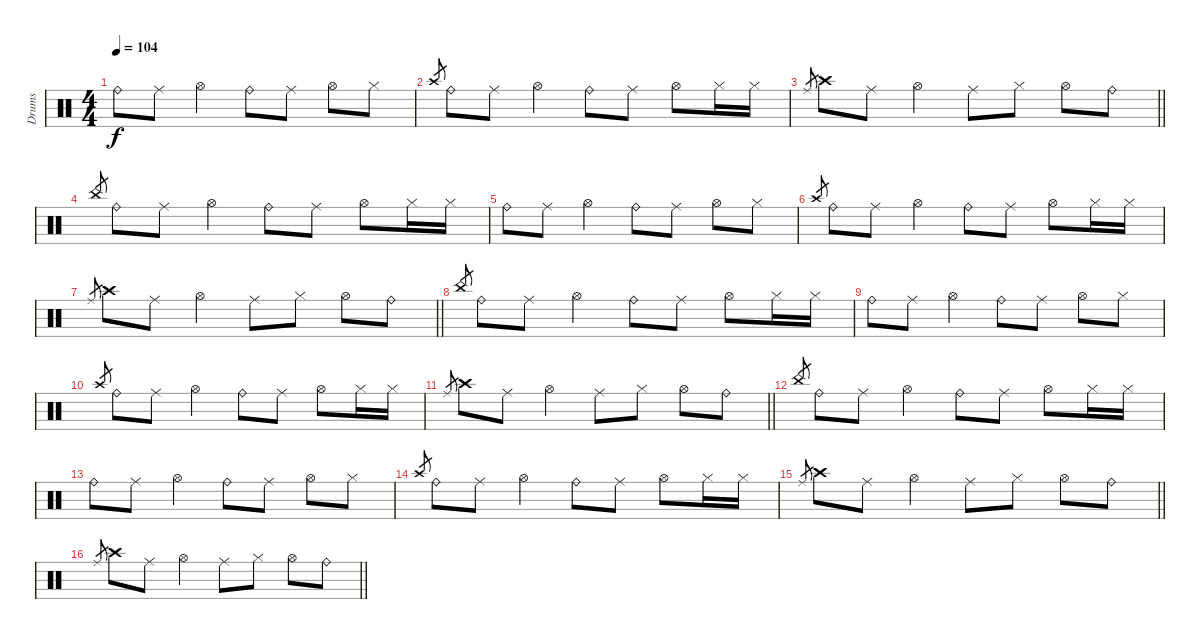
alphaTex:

\track ("Drums" "Drums") {instrument percussion}
\staff {score}
\articulation defaults
\ts (4 4)
\tempo 104
\clef neutral
\ks c "Ride (bell)".8{dy f} "Ride (middle)".8 "Hi-Hat (open)".4 "Ride (bell)".8 "Ride (middle)".8 "Hi-Hat (open)".8 "Hi-Hat (closed)".8
|
"Crash high (hit)".8{gr} "Ride (bell)".8 "Ride (middle)".8 "Hi-Hat (open)".4 "Ride (bell)".8 "Ride (middle)".8 "Hi-Hat (open)".8 "Hi-Hat (closed)".16 "Hi-Hat (closed)".16 |
\barLineRight lightlight "Ride (middle)".8{gr} "Crash high (hit)".8 "Ride (middle)".8 "Hi-Hat (open)".4 "Ride (middle)".8 "Hi-Hat (closed)".8 "Hi-Hat (open)".8 "Ride (bell)".8
|
"China (hit)".8{gr} "Ride (bell)".8 "Ride (middle)".8 "Hi-Hat (open)".4 "Ride (bell)".8 "Ride (middle)".8 "Hi-Hat (open)".8 "Hi-Hat (closed)".16 "Hi-Hat (closed)".16 |
"Ride (bell)".8 "Ride (middle)".8 "Hi-Hat (open)".4 "Ride (bell)".8 "Ride (middle)".8 "Hi-Hat (open)".8 "Hi-Hat (closed)".8 |
"Crash high (hit)".8{gr} "Ride (bell)".8 "Ride (middle)".8 "Hi-Hat (open)".4 "Ride (bell)".8 "Ride (middle)".8 "Hi-Hat (open)".8 "Hi-Hat (closed)".16 "Hi-Hat (closed)".16 |
\barLineRight lightlight "Ride (middle)".8{gr} "Crash high (hit)".8 "Ride (middle)".8 "Hi-Hat (open)".4 "Ride (middle)".8 "Hi-Hat (closed)".8 "Hi-Hat (open)".8 "Ride (bell)".8
|
"China (hit)".8{gr} "Ride (bell)".8 "Ride (middle)".8 "Hi-Hat (open)".4 "Ride (bell)".8 "Ride (middle)".8 "Hi-Hat (open)".8 "Hi-Hat (closed)".16 "Hi-Hat (closed)".16 |
"Ride (bell)".8 "Ride (middle)".8 "Hi-Hat (open)".4 "Ride (bell)".8 "Ride (middle)".8 "Hi-Hat (open)".8 "Hi-Hat (closed)".8 |
"Crash high (hit)".8{gr} "Ride (bell)".8 "Ride (middle)".8 "Hi-Hat (open)".4 "Ride (bell)".8 "Ride (middle)".8 "Hi-Hat (open)".8 "Hi-Hat (closed)".16 "Hi-Hat (closed)".16 |
\barLineRight lightlight "Ride (middle)".8{gr} "Crash high (hit)".8 "Ride (middle)".8 "Hi-Hat (open)".4 "Ride (middle)".8 "Hi-Hat (closed)".8 "Hi-Hat (open)".8 "Ride (bell)".8
|
"China (hit)".8{gr} "Ride (bell)".8 "Ride (middle)".8 "Hi-Hat (open)".4 "Ride (bell)".8 "Ride (middle)".8 "Hi-Hat (open)".8 "Hi-Hat (closed)".16 "Hi-Hat (closed)".16 |
"Ride (bell)".8 "Ride (middle)".8 "Hi-Hat (open)".4 "Ride (bell)".8 "Ride (middle)".8 "Hi-Hat (open)".8 "Hi-Hat (closed)".8 |
"Crash high (hit)".8{gr} "Ride (bell)".8 "Ride (middle)".8 "Hi-Hat (open)".4 "Ride (bell)".8 "Ride (middle)".8 "Hi-Hat (open)".8 "Hi-Hat (closed)".16 "Hi-Hat (closed)".16 |
\barLineRight lightlight "Ride (middle)".8{gr} "Crash high (hit)".8 "Ride (middle)".8 "Hi-Hat (open)".4 "Ride (middle)".8 "Hi-Hat (closed)".8 "Hi-Hat (open)".8 "Ride (bell)".8
|
\barLineRight lightlight "Ride (middle)".8{gr} "Crash high (hit)".8 "Ride (middle)".8 "Hi-Hat (open)".4 "Ride (middle)".8 "Hi-Hat (closed)".8 "Hi-Hat (open)".8 "Ride (bell)".8
